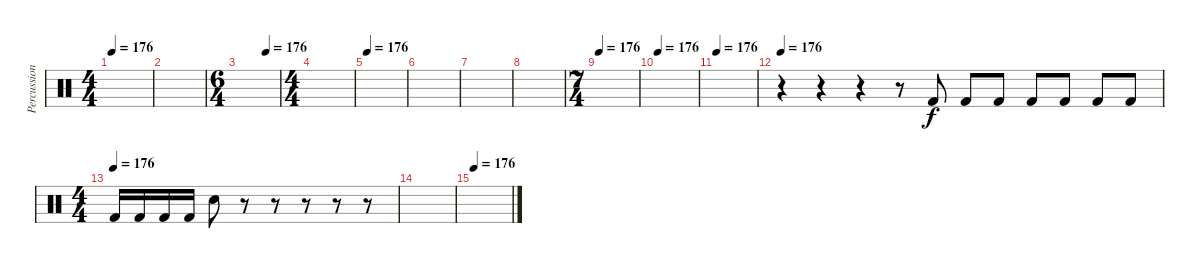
\track ("Percussion" "Percussion") {instrument percussion}
\staff {score}
\articulation defaults
\ts (4 4)
\tempo 176
\clef neutral
\ks c
|
|
\ts (6 4)
\tempo (176 0.6666666666666666)
|
\ts (4 4)
|
\tempo 176
|
|
|
|
\ts (7 4)
\tempo 176
|
\tempo 176
|
\tempo 176
|
\tempo 176
r.4 r.4 r.4 r.8 "Kick (hit) 2".8 "Kick (hit) 2".8 "Kick (hit) 2".8 "Kick (hit) 2".8 "Kick (hit) 2".8 "Kick (hit) 2".8 "Kick (hit) 2".8 |
\ts (4 4)
\tempo (176)
"Kick (hit) 2".16 "Kick (hit) 2".16 "Kick (hit) 2".16 "Kick (hit) 2".16 "Snare (hit) 2".8 r.8 r.8 r.8 r.8 r.8 |
|
\tempo 176
